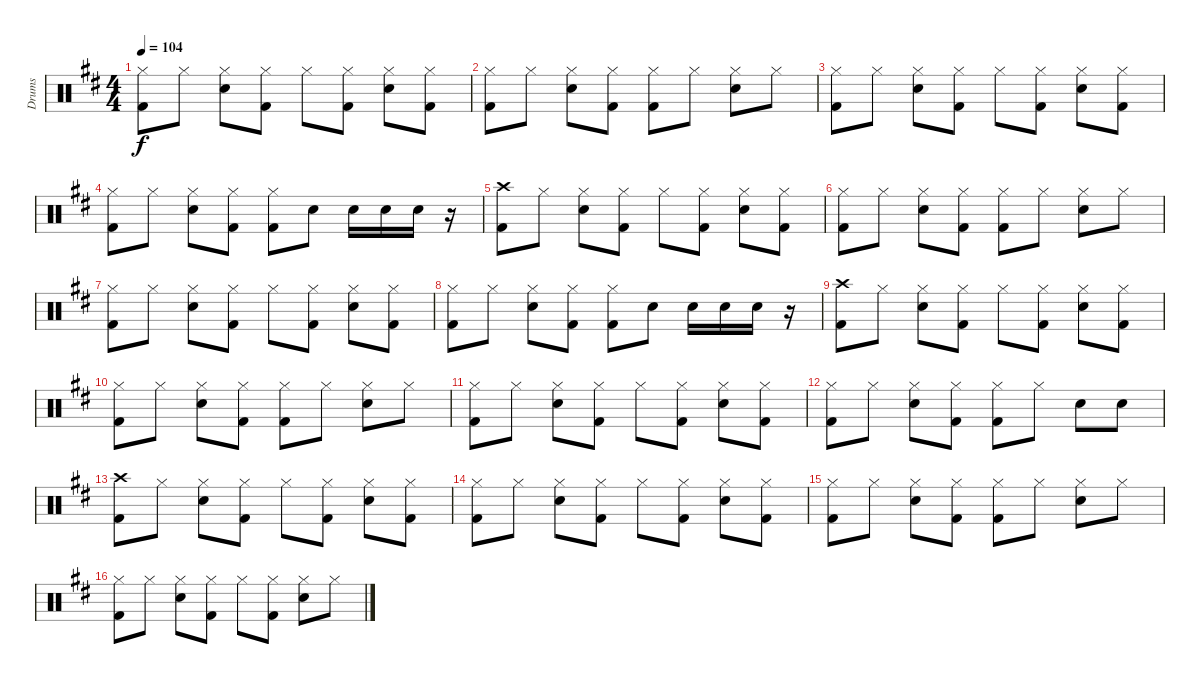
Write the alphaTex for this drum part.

\track ("Drums" "Drums") {instrument percussion}
\staff {score}
\articulation defaults
\ts (4 4)
\tempo 104
\clef neutral
\ks d
("Hi-Hat (closed)" "Kick (hit) 2").8{dy f} "Hi-Hat (closed)".8 ("Hi-Hat (closed)" "Snare (hit) 2").8 ("Hi-Hat (closed)" "Kick (hit) 2").8 "Hi-Hat (closed)".8 ("Hi-Hat (closed)" "Kick (hit) 2").8 ("Hi-Hat (closed)" "Snare (hit) 2").8 ("Hi-Hat (closed)" "Kick (hit) 2").8 |
("Hi-Hat (closed)" "Kick (hit) 2").8 "Hi-Hat (closed)".8 ("Hi-Hat (closed)" "Snare (hit) 2").8 ("Hi-Hat (closed)" "Kick (hit) 2").8 ("Hi-Hat (closed)" "Kick (hit) 2").8 "Hi-Hat (closed)".8 ("Hi-Hat (closed)" "Snare (hit) 2").8 "Hi-Hat (closed)".8 |
("Hi-Hat (closed)" "Kick (hit) 2").8 "Hi-Hat (closed)".8 ("Hi-Hat (closed)" "Snare (hit) 2").8 ("Hi-Hat (closed)" "Kick (hit) 2").8 "Hi-Hat (closed)".8 ("Hi-Hat (closed)" "Kick (hit) 2").8 ("Hi-Hat (closed)" "Snare (hit) 2").8 ("Hi-Hat (closed)" "Kick (hit) 2").8 |
("Hi-Hat (closed)" "Kick (hit) 2").8 "Hi-Hat (closed)".8 ("Hi-Hat (closed)" "Snare (hit) 2").8 ("Hi-Hat (closed)" "Kick (hit) 2").8 ("Hi-Hat (closed)" "Kick (hit) 2").8 "Snare (hit) 2".8 "Snare (hit) 2".16 "Snare (hit) 2".16 "Snare (hit) 2".16 r.16 |
("Crash high (hit)" "Kick (hit) 2").8 "Hi-Hat (closed)".8 ("Hi-Hat (closed)" "Snare (hit) 2").8 ("Hi-Hat (closed)" "Kick (hit) 2").8 "Hi-Hat (closed)".8 ("Hi-Hat (closed)" "Kick (hit) 2").8 ("Hi-Hat (closed)" "Snare (hit) 2").8 ("Hi-Hat (closed)" "Kick (hit) 2").8 |
("Hi-Hat (closed)" "Kick (hit) 2").8 "Hi-Hat (closed)".8 ("Hi-Hat (closed)" "Snare (hit) 2").8 ("Hi-Hat (closed)" "Kick (hit) 2").8 ("Hi-Hat (closed)" "Kick (hit) 2").8 "Hi-Hat (closed)".8 ("Hi-Hat (closed)" "Snare (hit) 2").8 "Hi-Hat (closed)".8 |
("Hi-Hat (closed)" "Kick (hit) 2").8 "Hi-Hat (closed)".8 ("Hi-Hat (closed)" "Snare (hit) 2").8 ("Hi-Hat (closed)" "Kick (hit) 2").8 "Hi-Hat (closed)".8 ("Hi-Hat (closed)" "Kick (hit) 2").8 ("Hi-Hat (closed)" "Snare (hit) 2").8 ("Hi-Hat (closed)" "Kick (hit) 2").8 |
("Hi-Hat (closed)" "Kick (hit) 2").8 "Hi-Hat (closed)".8 ("Hi-Hat (closed)" "Snare (hit) 2").8 ("Hi-Hat (closed)" "Kick (hit) 2").8 ("Hi-Hat (closed)" "Kick (hit) 2").8 "Snare (hit) 2".8 "Snare (hit) 2".16 "Snare (hit) 2".16 "Snare (hit) 2".16 r.16 |
("Crash high (hit)" "Kick (hit) 2").8 "Hi-Hat (closed)".8 ("Hi-Hat (closed)" "Snare (hit) 2").8 ("Hi-Hat (closed)" "Kick (hit) 2").8 "Hi-Hat (closed)".8 ("Hi-Hat (closed)" "Kick (hit) 2").8 ("Hi-Hat (closed)" "Snare (hit) 2").8 ("Hi-Hat (closed)" "Kick (hit) 2").8 |
("Hi-Hat (closed)" "Kick (hit) 2").8 "Hi-Hat (closed)".8 ("Hi-Hat (closed)" "Snare (hit) 2").8 ("Hi-Hat (closed)" "Kick (hit) 2").8 ("Hi-Hat (closed)" "Kick (hit) 2").8 "Hi-Hat (closed)".8 ("Hi-Hat (closed)" "Snare (hit) 2").8 "Hi-Hat (closed)".8 |
("Hi-Hat (closed)" "Kick (hit) 2").8 "Hi-Hat (closed)".8 ("Hi-Hat (closed)" "Snare (hit) 2").8 ("Hi-Hat (closed)" "Kick (hit) 2").8 "Hi-Hat (closed)".8 ("Hi-Hat (closed)" "Kick (hit) 2").8 ("Hi-Hat (closed)" "Snare (hit) 2").8 ("Hi-Hat (closed)" "Kick (hit) 2").8 |
("Hi-Hat (closed)" "Kick (hit) 2").8 "Hi-Hat (closed)".8 ("Hi-Hat (closed)" "Snare (hit) 2").8 ("Hi-Hat (closed)" "Kick (hit) 2").8 ("Hi-Hat (closed)" "Kick (hit) 2").8 "Hi-Hat (closed)".8 "Snare (hit) 2".8 "Snare (hit) 2".8 |
("Crash high (hit)" "Kick (hit) 2").8 "Hi-Hat (closed)".8 ("Hi-Hat (closed)" "Snare (hit) 2").8 ("Hi-Hat (closed)" "Kick (hit) 2").8 "Hi-Hat (closed)".8 ("Hi-Hat (closed)" "Kick (hit) 2").8 ("Hi-Hat (closed)" "Snare (hit) 2").8 ("Hi-Hat (closed)" "Kick (hit) 2").8 |
("Hi-Hat (closed)" "Kick (hit) 2").8 "Hi-Hat (closed)".8 ("Hi-Hat (closed)" "Snare (hit) 2").8 ("Hi-Hat (closed)" "Kick (hit) 2").8 "Hi-Hat (closed)".8 ("Hi-Hat (closed)" "Kick (hit) 2").8 ("Hi-Hat (closed)" "Snare (hit) 2").8 ("Hi-Hat (closed)" "Kick (hit) 2").8 |
("Hi-Hat (closed)" "Kick (hit) 2").8 "Hi-Hat (closed)".8 ("Hi-Hat (closed)" "Snare (hit) 2").8 ("Hi-Hat (closed)" "Kick (hit) 2").8 ("Hi-Hat (closed)" "Kick (hit) 2").8 "Hi-Hat (closed)".8 ("Hi-Hat (closed)" "Snare (hit) 2").8 "Hi-Hat (closed)".8 |
("Hi-Hat (closed)" "Kick (hit) 2").8 "Hi-Hat (closed)".8 ("Hi-Hat (closed)" "Snare (hit) 2").8 ("Hi-Hat (closed)" "Kick (hit) 2").8 "Hi-Hat (closed)".8 ("Hi-Hat (closed)" "Kick (hit) 2").8 ("Hi-Hat (closed)" "Snare (hit) 2").8 "Hi-Hat (closed)".8
